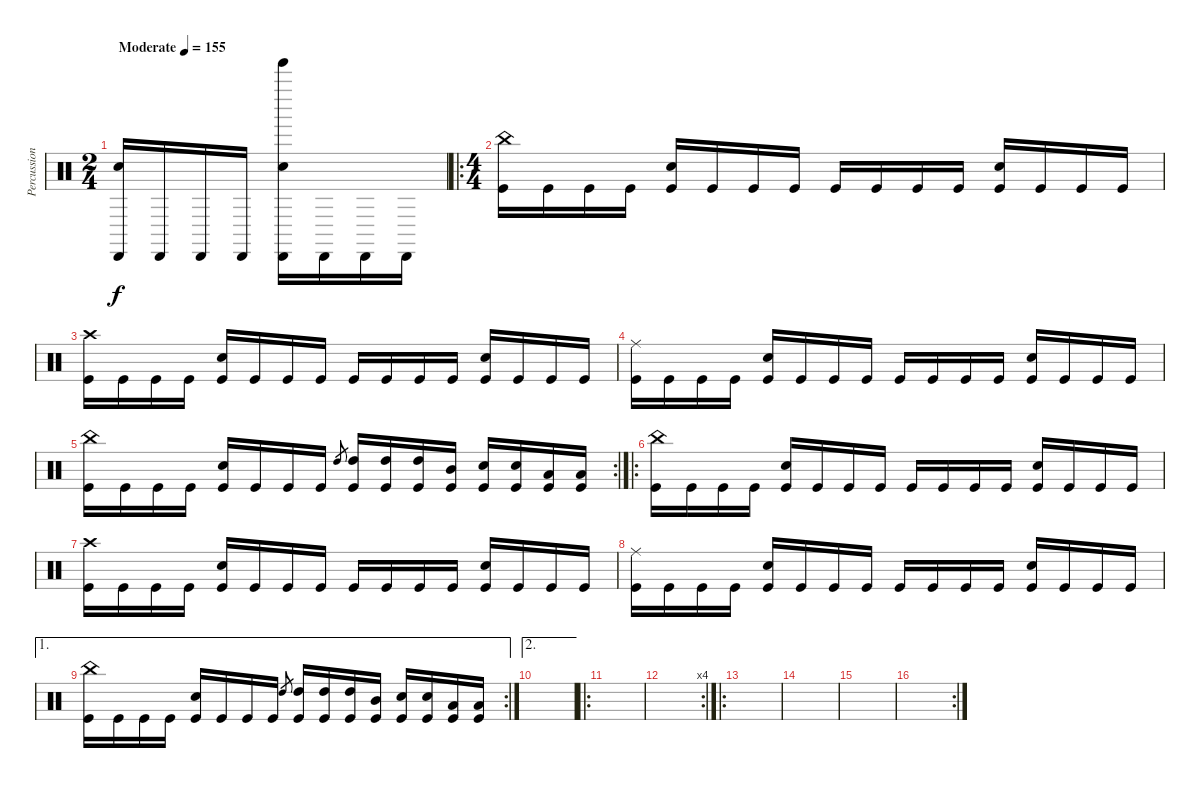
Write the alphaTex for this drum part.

\track ("Percussion" "Percussion") {instrument percussion}
\staff {score}
\articulation defaults
\ts (2 4)
\tempo (155 "Moderate")
\clef neutral
\ks c
("Cabasa (hit)" "Snare (hit) 2").16{dy f} "Cabasa (hit)".16 "Cabasa (hit)".16 "Cabasa (hit)".16 ("Cabasa (hit)" "Tinkle Bell (hit)" "Snare (hit) 2").16 "Cabasa (hit)".16 "Cabasa (hit)".16 "Cabasa (hit)".16 |
\ro
\ts (4 4)
("China (hit)" "Kick (hit)").16 "Kick (hit)".16 "Kick (hit)".16 "Kick (hit)".16 ("Snare (hit) 2" "Kick (hit)").16 "Kick (hit)".16 "Kick (hit)".16 "Kick (hit)".16 "Kick (hit)".16 "Kick (hit)".16 "Kick (hit)".16 "Kick (hit)".16 ("Snare (hit) 2" "Kick (hit)").16 "Kick (hit)".16 "Kick (hit)".16 "Kick (hit)".16 |
("Crash high (hit)" "Kick (hit)").16 "Kick (hit)".16 "Kick (hit)".16 "Kick (hit)".16 ("Snare (hit) 2" "Kick (hit)").16 "Kick (hit)".16 "Kick (hit)".16 "Kick (hit)".16 "Kick (hit)".16 "Kick (hit)".16 "Kick (hit)".16 "Kick (hit)".16 ("Snare (hit) 2" "Kick (hit)").16 "Kick (hit)".16 "Kick (hit)".16 "Kick (hit)".16 |
("Ride (middle)" "Kick (hit)").16 "Kick (hit)".16 "Kick (hit)".16 "Kick (hit)".16 ("Snare (hit) 2" "Kick (hit)").16 "Kick (hit)".16 "Kick (hit)".16 "Kick (hit)".16 "Kick (hit)".16 "Kick (hit)".16 "Kick (hit)".16 "Kick (hit)".16 ("Snare (hit) 2" "Kick (hit)").16 "Kick (hit)".16 "Kick (hit)".16 "Kick (hit)".16 |
\rc 2
("China (hit)" "Kick (hit)").16 "Kick (hit)".16 "Kick (hit)".16 "Kick (hit)".16 ("Snare (hit) 2" "Kick (hit)").16 "Kick (hit)".16 "Kick (hit)".16 "Kick (hit)".16 "High Tom (hit)".8{gr} ("High Tom (hit)" "Kick (hit)").16 ("High Tom (hit)" "Kick (hit)").16 ("High Tom (hit)" "Kick (hit)").16 ("Mid Tom (hit)" "Kick (hit)").16 ("Snare (hit) 2" "Kick (hit)").16 ("Snare (hit) 2" "Kick (hit)").16 ("Low Tom (hit)" "Kick (hit)").16 ("Low Tom (hit)" "Kick (hit)").16 |
\ro
("China (hit)" "Kick (hit)").16 "Kick (hit)".16 "Kick (hit)".16 "Kick (hit)".16 ("Snare (hit) 2" "Kick (hit)").16 "Kick (hit)".16 "Kick (hit)".16 "Kick (hit)".16 "Kick (hit)".16 "Kick (hit)".16 "Kick (hit)".16 "Kick (hit)".16 ("Snare (hit) 2" "Kick (hit)").16 "Kick (hit)".16 "Kick (hit)".16 "Kick (hit)".16 |
("Crash high (hit)" "Kick (hit)").16 "Kick (hit)".16 "Kick (hit)".16 "Kick (hit)".16 ("Snare (hit) 2" "Kick (hit)").16 "Kick (hit)".16 "Kick (hit)".16 "Kick (hit)".16 "Kick (hit)".16 "Kick (hit)".16 "Kick (hit)".16 "Kick (hit)".16 ("Snare (hit) 2" "Kick (hit)").16 "Kick (hit)".16 "Kick (hit)".16 "Kick (hit)".16 |
("Ride (middle)" "Kick (hit)").16 "Kick (hit)".16 "Kick (hit)".16 "Kick (hit)".16 ("Snare (hit) 2" "Kick (hit)").16 "Kick (hit)".16 "Kick (hit)".16 "Kick (hit)".16 "Kick (hit)".16 "Kick (hit)".16 "Kick (hit)".16 "Kick (hit)".16 ("Snare (hit) 2" "Kick (hit)").16 "Kick (hit)".16 "Kick (hit)".16 "Kick (hit)".16 |
\ae 1
\rc 2
("China (hit)" "Kick (hit)").16 "Kick (hit)".16 "Kick (hit)".16 "Kick (hit)".16 ("Snare (hit) 2" "Kick (hit)").16 "Kick (hit)".16 "Kick (hit)".16 "Kick (hit)".16 "High Tom (hit)".8{gr} ("High Tom (hit)" "Kick (hit)").16 ("High Tom (hit)" "Kick (hit)").16 ("High Tom (hit)" "Kick (hit)").16 ("Mid Tom (hit)" "Kick (hit)").16 ("Snare (hit) 2" "Kick (hit)").16 ("Snare (hit) 2" "Kick (hit)").16 ("Low Tom (hit)" "Kick (hit)").16 ("Low Tom (hit)" "Kick (hit)").16 |
\ae 2
|
\ro
|
\rc 4
|
\ro
|
|
|
\rc 2
